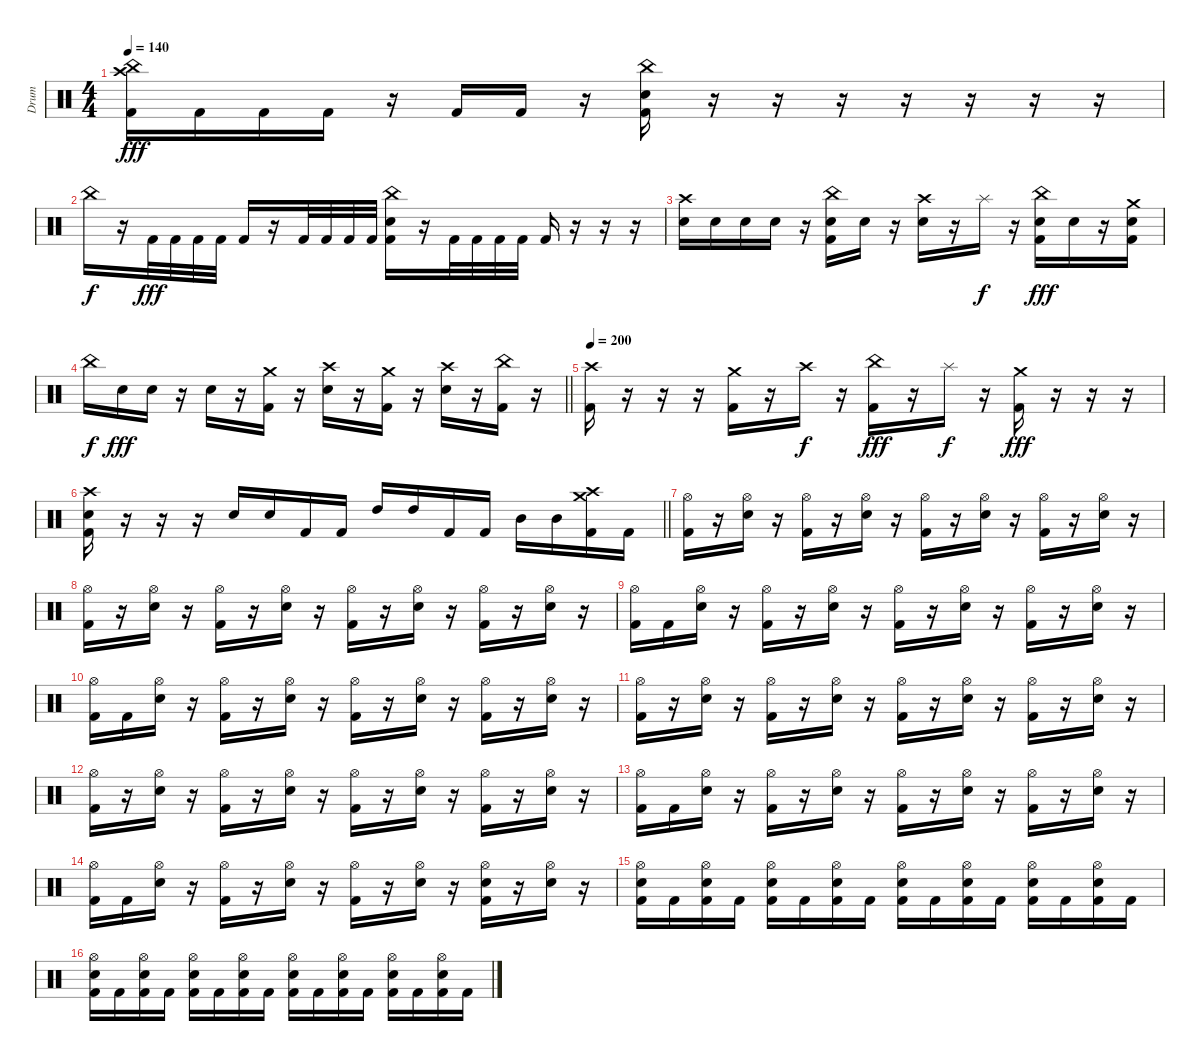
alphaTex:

\track ("Drum" "Drum") {instrument percussion}
\staff {score}
\articulation defaults
\ts (4 4)
\tempo 140
\clef neutral
\ks c
("Crash high (hit)" "China (hit)" "Kick (hit) 2").16{dy fff} "Kick (hit) 2".16 "Kick (hit) 2".16 "Kick (hit) 2".16 r.16 "Kick (hit) 2".16 "Kick (hit) 2".16 r.16 ("China (hit)" "Electric Snare (hit)" "Kick (hit) 2").16 r.16 r.16 r.16 r.16 r.16 r.16 r.16 |
"China (hit)".16{dy f} r.16 "Kick (hit) 2".32{dy fff} "Kick (hit) 2".32 "Kick (hit) 2".32 "Kick (hit) 2".32 "Kick (hit) 2".16 r.16 "Kick (hit) 2".32 "Kick (hit) 2".32 "Kick (hit) 2".32 "Kick (hit) 2".32 ("China (hit)" "Electric Snare (hit)" "Kick (hit) 2").16 r.16 "Kick (hit) 2".32 "Kick (hit) 2".32 "Kick (hit) 2".32 "Kick (hit) 2".32 "Kick (hit) 2".16 r.16 r.16 r.16 |
("Crash high (hit)" "Electric Snare (hit)").16 "Electric Snare (hit)".16 "Electric Snare (hit)".16 "Electric Snare (hit)".16 r.16 ("China (hit)" "Electric Snare (hit)" "Kick (hit) 2").16 "Electric Snare (hit)".16 r.16 ("Crash high (hit)" "Electric Snare (hit)").16 r.16 "Splash (hit)".16{dy f} r.16 ("China (hit)" "Electric Snare (hit)" "Kick (hit) 2").16{dy fff} "Electric Snare (hit)".16 r.16 ("Crash medium (hit)" "Electric Snare (hit)" "Kick (hit) 2").16 |
\barLineRight lightlight "China (hit)".16{dy f} "Electric Snare (hit)".16{dy fff} "Electric Snare (hit)".16
r.16 "Electric Snare (hit)".16 r.16 ("Crash medium (hit)" "Kick (hit) 2").16 r.16 ("Crash high (hit)" "Electric Snare (hit)").16 r.16 ("Crash medium (hit)" "Kick (hit) 2").16 r.16 ("Crash high (hit)" "Electric Snare (hit)").16 r.16 ("China (hit)" "Kick (hit) 2").16 r.16 |
\section ("" "")
\tempo 200
("Crash high (hit)" "Kick (hit) 2").16 r.16 r.16 r.16 ("Crash medium (hit)" "Kick (hit) 2").16 r.16 "Crash high (hit)".16{dy f} r.16 ("China (hit)" "Kick (hit) 2").16{dy fff} r.16 "Splash (hit)".16{dy f} r.16 ("Crash medium (hit)" "Kick (hit) 2").16{dy fff} r.16 r.16 r.16 |
\barLineRight lightlight
("Crash high (hit)" "Electric Snare (hit)" "Kick (hit) 2").16 r.16 r.16 r.16 "Electric Snare (hit)".16 "Electric Snare (hit)".16 "Kick (hit) 2".16 "Kick (hit) 2".16 "High Tom (hit)".16 "High Tom (hit)".16 "Kick (hit) 2".16 "Kick (hit) 2".16 "Mid Tom (hit)".16 "Mid Tom (hit)".16 ("Crash medium (hit)" "Crash high (hit)" "Kick (hit) 2").16 "Kick (hit) 2".16 |
\section ("" "")
("Hi-Hat (open)" "Kick (hit) 2").16 r.16 ("Hi-Hat (open)" "Electric Snare (hit)").16 r.16 ("Hi-Hat (open)" "Kick (hit) 2").16 r.16 ("Hi-Hat (open)" "Electric Snare (hit)").16 r.16 ("Hi-Hat (open)" "Kick (hit) 2").16 r.16 ("Hi-Hat (open)" "Electric Snare (hit)").16 r.16 ("Hi-Hat (open)" "Kick (hit) 2").16 r.16 ("Hi-Hat (open)" "Electric Snare (hit)").16 r.16 |
("Hi-Hat (open)" "Kick (hit) 2").16 r.16 ("Hi-Hat (open)" "Electric Snare (hit)").16 r.16 ("Hi-Hat (open)" "Kick (hit) 2").16 r.16 ("Hi-Hat (open)" "Electric Snare (hit)").16 r.16 ("Hi-Hat (open)" "Kick (hit) 2").16 r.16 ("Hi-Hat (open)" "Electric Snare (hit)").16 r.16 ("Hi-Hat (open)" "Kick (hit) 2").16 r.16 ("Hi-Hat (open)" "Electric Snare (hit)").16 r.16 |
("Hi-Hat (open)" "Kick (hit) 2").16 "Kick (hit) 2".16 ("Hi-Hat (open)" "Electric Snare (hit)").16 r.16 ("Hi-Hat (open)" "Kick (hit) 2").16 r.16 ("Hi-Hat (open)" "Electric Snare (hit)").16 r.16 ("Hi-Hat (open)" "Kick (hit) 2").16 r.16 ("Hi-Hat (open)" "Electric Snare (hit)").16 r.16 ("Hi-Hat (open)" "Kick (hit) 2").16 r.16 ("Hi-Hat (open)" "Electric Snare (hit)").16 r.16 |
("Hi-Hat (open)" "Kick (hit) 2").16 "Kick (hit) 2".16 ("Hi-Hat (open)" "Electric Snare (hit)").16 r.16 ("Hi-Hat (open)" "Kick (hit) 2").16 r.16 ("Hi-Hat (open)" "Electric Snare (hit)").16 r.16 ("Hi-Hat (open)" "Kick (hit) 2").16 r.16 ("Hi-Hat (open)" "Electric Snare (hit)").16 r.16 ("Hi-Hat (open)" "Kick (hit) 2").16 r.16 ("Hi-Hat (open)" "Electric Snare (hit)").16 r.16 |
("Hi-Hat (open)" "Kick (hit) 2").16 r.16 ("Hi-Hat (open)" "Electric Snare (hit)").16 r.16 ("Hi-Hat (open)" "Kick (hit) 2").16 r.16 ("Hi-Hat (open)" "Electric Snare (hit)").16 r.16 ("Hi-Hat (open)" "Kick (hit) 2").16 r.16 ("Hi-Hat (open)" "Electric Snare (hit)").16 r.16 ("Hi-Hat (open)" "Kick (hit) 2").16 r.16 ("Hi-Hat (open)" "Electric Snare (hit)").16 r.16 |
("Hi-Hat (open)" "Kick (hit) 2").16 r.16 ("Hi-Hat (open)" "Electric Snare (hit)").16 r.16 ("Hi-Hat (open)" "Kick (hit) 2").16 r.16 ("Hi-Hat (open)" "Electric Snare (hit)").16 r.16 ("Hi-Hat (open)" "Kick (hit) 2").16 r.16 ("Hi-Hat (open)" "Electric Snare (hit)").16 r.16 ("Hi-Hat (open)" "Kick (hit) 2").16 r.16 ("Hi-Hat (open)" "Electric Snare (hit)").16 r.16 |
("Hi-Hat (open)" "Kick (hit) 2").16 "Kick (hit) 2".16 ("Hi-Hat (open)" "Electric Snare (hit)").16 r.16 ("Hi-Hat (open)" "Kick (hit) 2").16 r.16 ("Hi-Hat (open)" "Electric Snare (hit)").16 r.16 ("Hi-Hat (open)" "Kick (hit) 2").16 r.16 ("Hi-Hat (open)" "Electric Snare (hit)").16 r.16 ("Hi-Hat (open)" "Kick (hit) 2").16 r.16 ("Hi-Hat (open)" "Electric Snare (hit)").16 r.16 |
("Hi-Hat (open)" "Kick (hit) 2").16 "Kick (hit) 2".16 ("Hi-Hat (open)" "Electric Snare (hit)").16 r.16 ("Hi-Hat (open)" "Kick (hit) 2").16 r.16 ("Hi-Hat (open)" "Electric Snare (hit)").16 r.16 ("Hi-Hat (open)" "Kick (hit) 2").16 r.16 ("Hi-Hat (open)" "Electric Snare (hit)").16 r.16 ("Hi-Hat (open)" "Electric Snare (hit)" "Kick (hit) 2").16 r.16 ("Hi-Hat (open)" "Electric Snare (hit)").16 r.16 |
("Hi-Hat (open)" "Electric Snare (hit)" "Kick (hit) 2").16 "Kick (hit) 2".16 ("Hi-Hat (open)" "Electric Snare (hit)" "Kick (hit) 2").16 "Kick (hit) 2".16 ("Hi-Hat (open)" "Electric Snare (hit)" "Kick (hit) 2").16 "Kick (hit) 2".16 ("Hi-Hat (open)" "Electric Snare (hit)" "Kick (hit) 2").16 "Kick (hit) 2".16 ("Hi-Hat (open)" "Electric Snare (hit)" "Kick (hit) 2").16 "Kick (hit) 2".16 ("Hi-Hat (open)" "Electric Snare (hit)" "Kick (hit) 2").16 "Kick (hit) 2".16 ("Hi-Hat (open)" "Electric Snare (hit)" "Kick (hit) 2").16 "Kick (hit) 2".16 ("Hi-Hat (open)" "Electric Snare (hit)" "Kick (hit) 2").16 "Kick (hit) 2".16 |
("Hi-Hat (open)" "Electric Snare (hit)" "Kick (hit) 2").16 "Kick (hit) 2".16 ("Hi-Hat (open)" "Electric Snare (hit)" "Kick (hit) 2").16 "Kick (hit) 2".16 ("Hi-Hat (open)" "Electric Snare (hit)" "Kick (hit) 2").16 "Kick (hit) 2".16 ("Hi-Hat (open)" "Electric Snare (hit)" "Kick (hit) 2").16 "Kick (hit) 2".16 ("Hi-Hat (open)" "Electric Snare (hit)" "Kick (hit) 2").16 "Kick (hit) 2".16 ("Hi-Hat (open)" "Electric Snare (hit)" "Kick (hit) 2").16 "Kick (hit) 2".16 ("Hi-Hat (open)" "Electric Snare (hit)" "Kick (hit) 2").16 "Kick (hit) 2".16 ("Hi-Hat (open)" "Electric Snare (hit)" "Kick (hit) 2").16 "Kick (hit) 2".16
